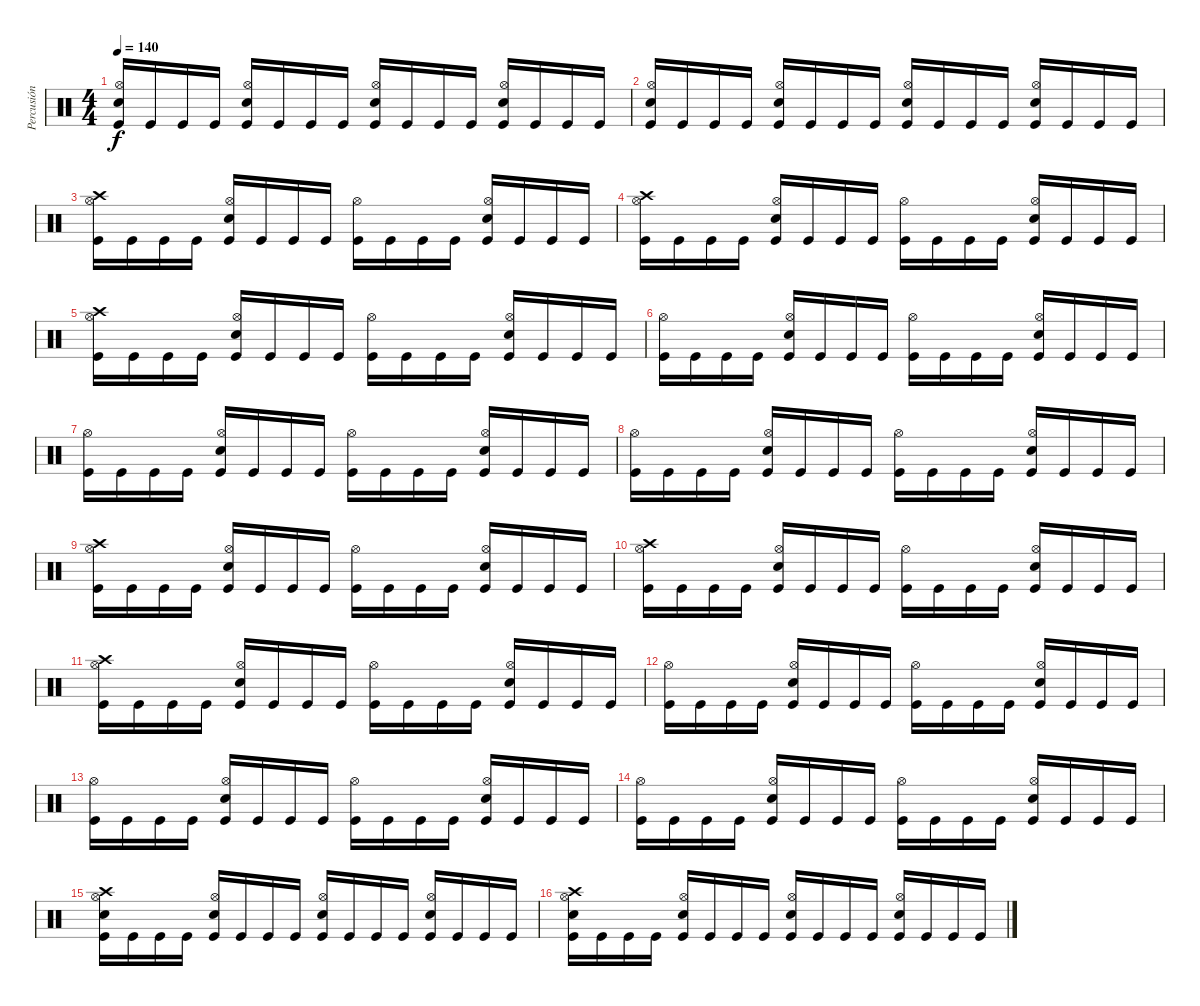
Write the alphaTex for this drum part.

\track ("Percusión" "Percusión") {instrument percussion}
\staff {score}
\articulation defaults
\ts (4 4)
\tempo 140
\clef neutral
\ks c
("Snare (hit) 2" "Hi-Hat (open)" "Kick (hit)").16{dy f} "Kick (hit)".16 "Kick (hit)".16 "Kick (hit)".16 ("Snare (hit) 2" "Hi-Hat (open)" "Kick (hit)").16 "Kick (hit)".16 "Kick (hit)".16 "Kick (hit)".16 ("Snare (hit) 2" "Hi-Hat (open)" "Kick (hit)").16 "Kick (hit)".16 "Kick (hit)".16 "Kick (hit)".16 ("Snare (hit) 2" "Hi-Hat (open)" "Kick (hit)").16 "Kick (hit)".16 "Kick (hit)".16 "Kick (hit)".16 |
("Snare (hit) 2" "Hi-Hat (open)" "Kick (hit)").16 "Kick (hit)".16 "Kick (hit)".16 "Kick (hit)".16 ("Snare (hit) 2" "Hi-Hat (open)" "Kick (hit)").16 "Kick (hit)".16 "Kick (hit)".16 "Kick (hit)".16 ("Snare (hit) 2" "Hi-Hat (open)" "Kick (hit)").16 "Kick (hit)".16 "Kick (hit)".16 "Kick (hit)".16 ("Snare (hit) 2" "Hi-Hat (open)" "Kick (hit)").16 "Kick (hit)".16 "Kick (hit)".16 "Kick (hit)".16 |
("Crash high (hit)" "Hi-Hat (open)" "Kick (hit)").16 "Kick (hit)".16 "Kick (hit)".16 "Kick (hit)".16 ("Snare (hit) 2" "Hi-Hat (open)" "Kick (hit)").16 "Kick (hit)".16 "Kick (hit)".16 "Kick (hit)".16 ("Hi-Hat (open)" "Kick (hit)").16 "Kick (hit)".16 "Kick (hit)".16 "Kick (hit)".16 ("Snare (hit) 2" "Hi-Hat (open)" "Kick (hit)").16 "Kick (hit)".16 "Kick (hit)".16 "Kick (hit)".16 |
("Crash high (hit)" "Hi-Hat (open)" "Kick (hit)").16 "Kick (hit)".16 "Kick (hit)".16 "Kick (hit)".16 ("Snare (hit) 2" "Hi-Hat (open)" "Kick (hit)").16 "Kick (hit)".16 "Kick (hit)".16 "Kick (hit)".16 ("Hi-Hat (open)" "Kick (hit)").16 "Kick (hit)".16 "Kick (hit)".16 "Kick (hit)".16 ("Snare (hit) 2" "Hi-Hat (open)" "Kick (hit)").16 "Kick (hit)".16 "Kick (hit)".16 "Kick (hit)".16 |
("Crash high (hit)" "Hi-Hat (open)" "Kick (hit)").16 "Kick (hit)".16 "Kick (hit)".16 "Kick (hit)".16 ("Snare (hit) 2" "Hi-Hat (open)" "Kick (hit)").16 "Kick (hit)".16 "Kick (hit)".16 "Kick (hit)".16 ("Hi-Hat (open)" "Kick (hit)").16 "Kick (hit)".16 "Kick (hit)".16 "Kick (hit)".16 ("Snare (hit) 2" "Hi-Hat (open)" "Kick (hit)").16 "Kick (hit)".16 "Kick (hit)".16 "Kick (hit)".16 |
("Hi-Hat (open)" "Kick (hit)").16 "Kick (hit)".16 "Kick (hit)".16 "Kick (hit)".16 ("Snare (hit) 2" "Hi-Hat (open)" "Kick (hit)").16 "Kick (hit)".16 "Kick (hit)".16 "Kick (hit)".16 ("Hi-Hat (open)" "Kick (hit)").16 "Kick (hit)".16 "Kick (hit)".16 "Kick (hit)".16 ("Snare (hit) 2" "Hi-Hat (open)" "Kick (hit)").16 "Kick (hit)".16 "Kick (hit)".16 "Kick (hit)".16 |
("Hi-Hat (open)" "Kick (hit)").16 "Kick (hit)".16 "Kick (hit)".16 "Kick (hit)".16 ("Snare (hit) 2" "Hi-Hat (open)" "Kick (hit)").16 "Kick (hit)".16 "Kick (hit)".16 "Kick (hit)".16 ("Hi-Hat (open)" "Kick (hit)").16 "Kick (hit)".16 "Kick (hit)".16 "Kick (hit)".16 ("Snare (hit) 2" "Hi-Hat (open)" "Kick (hit)").16 "Kick (hit)".16 "Kick (hit)".16 "Kick (hit)".16 |
("Hi-Hat (open)" "Kick (hit)").16 "Kick (hit)".16 "Kick (hit)".16 "Kick (hit)".16 ("Snare (hit) 2" "Hi-Hat (open)" "Kick (hit)").16 "Kick (hit)".16 "Kick (hit)".16 "Kick (hit)".16 ("Hi-Hat (open)" "Kick (hit)").16 "Kick (hit)".16 "Kick (hit)".16 "Kick (hit)".16 ("Snare (hit) 2" "Hi-Hat (open)" "Kick (hit)").16 "Kick (hit)".16 "Kick (hit)".16 "Kick (hit)".16 |
("Crash high (hit)" "Hi-Hat (open)" "Kick (hit)").16 "Kick (hit)".16 "Kick (hit)".16 "Kick (hit)".16 ("Snare (hit) 2" "Hi-Hat (open)" "Kick (hit)").16 "Kick (hit)".16 "Kick (hit)".16 "Kick (hit)".16 ("Hi-Hat (open)" "Kick (hit)").16 "Kick (hit)".16 "Kick (hit)".16 "Kick (hit)".16 ("Snare (hit) 2" "Hi-Hat (open)" "Kick (hit)").16 "Kick (hit)".16 "Kick (hit)".16 "Kick (hit)".16 |
("Crash high (hit)" "Hi-Hat (open)" "Kick (hit)").16 "Kick (hit)".16 "Kick (hit)".16 "Kick (hit)".16 ("Snare (hit) 2" "Hi-Hat (open)" "Kick (hit)").16 "Kick (hit)".16 "Kick (hit)".16 "Kick (hit)".16 ("Hi-Hat (open)" "Kick (hit)").16 "Kick (hit)".16 "Kick (hit)".16 "Kick (hit)".16 ("Snare (hit) 2" "Hi-Hat (open)" "Kick (hit)").16 "Kick (hit)".16 "Kick (hit)".16 "Kick (hit)".16 |
("Crash high (hit)" "Hi-Hat (open)" "Kick (hit)").16 "Kick (hit)".16 "Kick (hit)".16 "Kick (hit)".16 ("Snare (hit) 2" "Hi-Hat (open)" "Kick (hit)").16 "Kick (hit)".16 "Kick (hit)".16 "Kick (hit)".16 ("Hi-Hat (open)" "Kick (hit)").16 "Kick (hit)".16 "Kick (hit)".16 "Kick (hit)".16 ("Snare (hit) 2" "Hi-Hat (open)" "Kick (hit)").16 "Kick (hit)".16 "Kick (hit)".16 "Kick (hit)".16 |
("Hi-Hat (open)" "Kick (hit)").16 "Kick (hit)".16 "Kick (hit)".16 "Kick (hit)".16 ("Snare (hit) 2" "Hi-Hat (open)" "Kick (hit)").16 "Kick (hit)".16 "Kick (hit)".16 "Kick (hit)".16 ("Hi-Hat (open)" "Kick (hit)").16 "Kick (hit)".16 "Kick (hit)".16 "Kick (hit)".16 ("Snare (hit) 2" "Hi-Hat (open)" "Kick (hit)").16 "Kick (hit)".16 "Kick (hit)".16 "Kick (hit)".16 |
("Hi-Hat (open)" "Kick (hit)").16 "Kick (hit)".16 "Kick (hit)".16 "Kick (hit)".16 ("Snare (hit) 2" "Hi-Hat (open)" "Kick (hit)").16 "Kick (hit)".16 "Kick (hit)".16 "Kick (hit)".16 ("Hi-Hat (open)" "Kick (hit)").16 "Kick (hit)".16 "Kick (hit)".16 "Kick (hit)".16 ("Snare (hit) 2" "Hi-Hat (open)" "Kick (hit)").16 "Kick (hit)".16 "Kick (hit)".16 "Kick (hit)".16 |
("Hi-Hat (open)" "Kick (hit)").16 "Kick (hit)".16 "Kick (hit)".16 "Kick (hit)".16 ("Snare (hit) 2" "Hi-Hat (open)" "Kick (hit)").16 "Kick (hit)".16 "Kick (hit)".16 "Kick (hit)".16 ("Hi-Hat (open)" "Kick (hit)").16 "Kick (hit)".16 "Kick (hit)".16 "Kick (hit)".16 ("Snare (hit) 2" "Hi-Hat (open)" "Kick (hit)").16 "Kick (hit)".16 "Kick (hit)".16 "Kick (hit)".16 |
("Crash high (hit)" "Snare (hit) 2" "Hi-Hat (open)" "Kick (hit)").16 "Kick (hit)".16 "Kick (hit)".16 "Kick (hit)".16 ("Snare (hit) 2" "Hi-Hat (open)" "Kick (hit)").16 "Kick (hit)".16 "Kick (hit)".16 "Kick (hit)".16 ("Snare (hit) 2" "Hi-Hat (open)" "Kick (hit)").16 "Kick (hit)".16 "Kick (hit)".16 "Kick (hit)".16 ("Snare (hit) 2" "Hi-Hat (open)" "Kick (hit)").16 "Kick (hit)".16 "Kick (hit)".16 "Kick (hit)".16 |
("Crash high (hit)" "Snare (hit) 2" "Hi-Hat (open)" "Kick (hit)").16 "Kick (hit)".16 "Kick (hit)".16 "Kick (hit)".16 ("Snare (hit) 2" "Hi-Hat (open)" "Kick (hit)").16 "Kick (hit)".16 "Kick (hit)".16 "Kick (hit)".16 ("Snare (hit) 2" "Hi-Hat (open)" "Kick (hit)").16 "Kick (hit)".16 "Kick (hit)".16 "Kick (hit)".16 ("Snare (hit) 2" "Hi-Hat (open)" "Kick (hit)").16 "Kick (hit)".16 "Kick (hit)".16 "Kick (hit)".16
